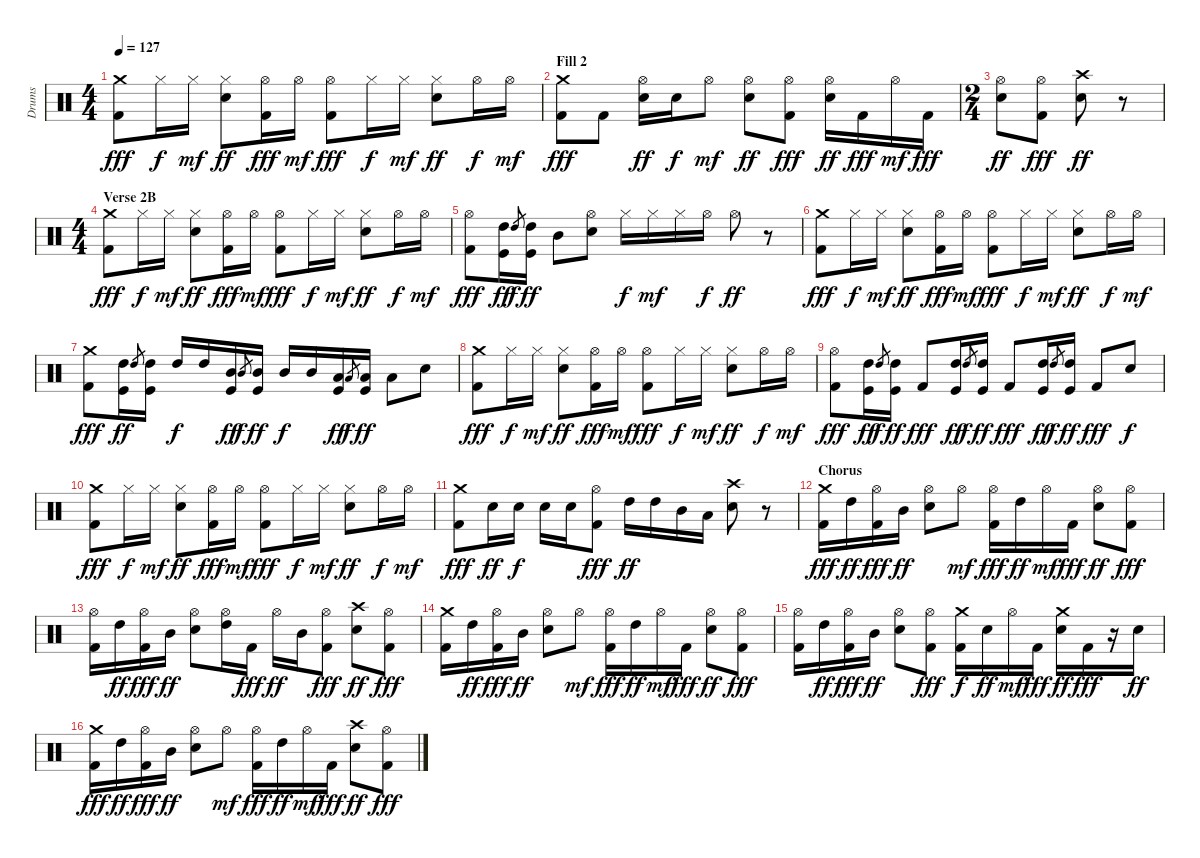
\track ("Drums" "Drums") {instrument percussion}
\staff {score}
\articulation defaults
\ts (4 4)
\tempo 127
\clef neutral
\ks c
("Crash medium (hit)" "Kick (hit) 2").8{dy fff} "Hi-Hat (closed)".16{dy f} "Hi-Hat (closed)".16{dy mf} ("Hi-Hat (closed)" "Snare (hit) 2").8{dy ff} ("Hi-Hat (open)" "Kick (hit) 2").16{dy fff} "Hi-Hat (open)".16{dy mf} ("Hi-Hat (open)" "Kick (hit) 2").8{dy fff} "Hi-Hat (closed)".16{dy f} "Hi-Hat (closed)".16{dy mf} ("Hi-Hat (closed)" "Snare (hit) 2").8{dy ff} "Hi-Hat (open)".16{dy f} "Hi-Hat (open)".16{dy mf} |
\section ("" "Fill 2")
("Crash medium (hit)" "Kick (hit) 2").8{dy fff} "Kick (hit) 2".8 ("Hi-Hat (open)" "Snare (hit) 2").16{dy ff} "Snare (hit) 2".16{dy f} "Hi-Hat (open)".8{dy mf} ("Hi-Hat (open)" "Snare (hit) 2").8{dy ff} ("Hi-Hat (open)" "Kick (hit) 2").8{dy fff} ("Hi-Hat (open)" "Snare (hit) 2").16{dy ff} "Kick (hit) 2".16{dy fff} "Hi-Hat (open)".16{dy mf} "Kick (hit) 2".16{dy fff} |
\ts (2 4)
("Hi-Hat (open)" "Snare (hit) 2").8{dy ff} ("Hi-Hat (open)" "Kick (hit) 2").8{dy fff} ("Crash high (hit)" "Snare (hit) 2").8{dy ff} r.8 |
\ts (4 4)
\section ("" "Verse 2B")
("Crash medium (hit)" "Kick (hit) 2").8{dy fff} "Hi-Hat (closed)".16{dy f} "Hi-Hat (closed)".16{dy mf} ("Hi-Hat (closed)" "Snare (hit) 2").8{dy ff} ("Hi-Hat (open)" "Kick (hit) 2").16{dy fff} "Hi-Hat (open)".16{dy mf} ("Hi-Hat (open)" "Kick (hit) 2").8{dy fff} "Hi-Hat (closed)".16{dy f} "Hi-Hat (closed)".16{dy mf} ("Hi-Hat (closed)" "Snare (hit) 2").8{dy ff} "Hi-Hat (open)".16{dy f} "Hi-Hat (open)".16{dy mf} |
("Hi-Hat (open)" "Kick (hit) 2").8{dy fff} ("High Tom (hit)" "Kick (hit)").16{dy ff} "High Tom (hit)".8{gr dy f} ("High Tom (hit)" "Kick (hit)").16{dy ff} "Mid Tom (hit)".8 ("Hi-Hat (open)" "Snare (hit) 2").8 "Hi-Hat (closed)".16{dy f} "Hi-Hat (closed)".16{dy mf} "Hi-Hat (closed)".16 "Hi-Hat (open)".16{dy f} "Hi-Hat (open)".8{dy ff} r.8 |
("Crash medium (hit)" "Kick (hit) 2").8{dy fff} "Hi-Hat (closed)".16{dy f} "Hi-Hat (closed)".16{dy mf} ("Hi-Hat (closed)" "Snare (hit) 2").8{dy ff} ("Hi-Hat (open)" "Kick (hit) 2").16{dy fff} "Hi-Hat (open)".16{dy mf} ("Hi-Hat (open)" "Kick (hit) 2").8{dy fff} "Hi-Hat (closed)".16{dy f} "Hi-Hat (closed)".16{dy mf} ("Hi-Hat (closed)" "Snare (hit) 2").8{dy ff} "Hi-Hat (open)".16{dy f} "Hi-Hat (open)".16{dy mf} |
("Crash medium (hit)" "Kick (hit) 2").8{dy fff} ("High Tom (hit)" "Kick (hit)").16{dy ff} "High Tom (hit)".8{gr} ("High Tom (hit)" "Kick (hit)").16 "High Tom (hit)".16{dy f} "High Tom (hit)".16 ("Mid Tom (hit)" "Kick (hit)").16{dy ff} "Mid Tom (hit)".8{gr dy f} ("Mid Tom (hit)" "Kick (hit)").16{dy ff} "Mid Tom (hit)".16{dy f} "Mid Tom (hit)".16 ("Low Tom (hit)" "Kick (hit)").16{dy ff} "Low Tom (hit)".8{gr dy f} ("Low Tom (hit)" "Kick (hit)").16{dy ff} "Low Tom (hit)".8 "Snare (hit) 2".8 |
("Crash medium (hit)" "Kick (hit) 2").8{dy fff} "Hi-Hat (closed)".16{dy f} "Hi-Hat (closed)".16{dy mf} ("Hi-Hat (closed)" "Snare (hit) 2").8{dy ff} ("Hi-Hat (open)" "Kick (hit) 2").16{dy fff} "Hi-Hat (open)".16{dy mf} ("Hi-Hat (open)" "Kick (hit) 2").8{dy fff} "Hi-Hat (closed)".16{dy f} "Hi-Hat (closed)".16{dy mf} ("Hi-Hat (closed)" "Snare (hit) 2").8{dy ff} "Hi-Hat (open)".16{dy f} "Hi-Hat (open)".16{dy mf} |
("Hi-Hat (open)" "Kick (hit) 2").8{dy fff} ("High Tom (hit)" "Kick (hit)").16{dy ff} "High Tom (hit)".8{gr dy f} ("High Tom (hit)" "Kick (hit)").16{dy ff} "Kick (hit) 2".8{dy fff} ("High Tom (hit)" "Kick (hit)").16{dy ff} "High Tom (hit)".8{gr dy f} ("High Tom (hit)" "Kick (hit)").16{dy ff} "Kick (hit) 2".8{dy fff} ("High Tom (hit)" "Kick (hit)").16{dy ff} "High Tom (hit)".8{gr dy f} ("High Tom (hit)" "Kick (hit)").16{dy ff} "Kick (hit) 2".8{dy fff} "Snare (hit) 2".8{dy f} |
("Crash medium (hit)" "Kick (hit) 2").8{dy fff} "Hi-Hat (closed)".16{dy f} "Hi-Hat (closed)".16{dy mf} ("Hi-Hat (closed)" "Snare (hit) 2").8{dy ff} ("Hi-Hat (open)" "Kick (hit) 2").16{dy fff} "Hi-Hat (open)".16{dy mf} ("Hi-Hat (open)" "Kick (hit) 2").8{dy fff} "Hi-Hat (closed)".16{dy f} "Hi-Hat (closed)".16{dy mf} ("Hi-Hat (closed)" "Snare (hit) 2").8{dy ff} "Hi-Hat (open)".16{dy f} "Hi-Hat (open)".16{dy mf} |
("Crash medium (hit)" "Kick (hit) 2").8{dy fff} "Snare (hit) 2".16{dy ff} "Snare (hit) 2".16{dy f} "Snare (hit) 2".16 "Snare (hit) 2".16 ("Hi-Hat (open)" "Kick (hit) 2").8{dy fff} "High Tom (hit)".16{dy ff} "High Tom (hit)".16 "Mid Tom (hit)".16 "Low Tom (hit)".16 ("Crash high (hit)" "Snare (hit) 2").8 r.8 |
\section ("" "Chorus")
("Crash medium (hit)" "Kick (hit) 2").16{dy fff} "High Tom (hit)".16{dy ff} ("Hi-Hat (open)" "Kick (hit) 2").16{dy fff} "Mid Tom (hit)".16{dy ff} ("Hi-Hat (open)" "Snare (hit) 2").8 "Hi-Hat (open)".8{dy mf} ("Hi-Hat (open)" "Kick (hit) 2").16{dy fff} "High Tom (hit)".16{dy ff} "Hi-Hat (open)".16{dy mf} "Kick (hit) 2".16{dy fff} ("Hi-Hat (open)" "Snare (hit) 2").8{dy ff} ("Hi-Hat (open)" "Kick (hit) 2").8{dy fff} |
("Hi-Hat (open)" "Kick (hit) 2").16 "High Tom (hit)".16{dy ff} ("Hi-Hat (open)" "Kick (hit) 2").16{dy fff} "Mid Tom (hit)".16{dy ff} ("Hi-Hat (open)" "Snare (hit) 2").8 ("Hi-Hat (open)" "High Tom (hit)").16 "Kick (hit) 2".16{dy fff} "Hi-Hat (open)".16{dy ff} "Mid Tom (hit)".16 ("Hi-Hat (open)" "Kick (hit) 2").8{dy fff} ("Crash high (hit)" "Snare (hit) 2").8{dy ff} ("Hi-Hat (open)" "Kick (hit) 2").8{dy fff} |
("Crash medium (hit)" "Kick (hit) 2").16 "High Tom (hit)".16{dy ff} ("Hi-Hat (open)" "Kick (hit) 2").16{dy fff} "Mid Tom (hit)".16{dy ff} ("Hi-Hat (open)" "Snare (hit) 2").8 "Hi-Hat (open)".8{dy mf} ("Hi-Hat (open)" "Kick (hit) 2").16{dy fff} "High Tom (hit)".16{dy ff} "Hi-Hat (open)".16{dy mf} "Kick (hit) 2".16{dy fff} ("Hi-Hat (open)" "Snare (hit) 2").8{dy ff} ("Hi-Hat (open)" "Kick (hit) 2").8{dy fff} |
("Hi-Hat (open)" "Kick (hit) 2").16 "High Tom (hit)".16{dy ff} ("Hi-Hat (open)" "Kick (hit) 2").16{dy fff} "Mid Tom (hit)".16{dy ff} ("Hi-Hat (open)" "Snare (hit) 2").8 ("Hi-Hat (open)" "Kick (hit) 2").8{dy fff} ("Crash medium (hit)" "Kick (hit) 2").16{dy f} "Snare (hit) 2".16{dy ff} "Hi-Hat (open)".16{dy mf} "Kick (hit) 2".16{dy fff} ("Crash medium (hit)" "Snare (hit) 2").16{dy ff} "Kick (hit) 2".16{dy fff} r.16 "Snare (hit) 2".16{dy ff} |
("Crash medium (hit)" "Kick (hit) 2").16{dy fff} "High Tom (hit)".16{dy ff} ("Hi-Hat (open)" "Kick (hit) 2").16{dy fff} "Mid Tom (hit)".16{dy ff} ("Hi-Hat (open)" "Snare (hit) 2").8 "Hi-Hat (open)".8{dy mf} ("Hi-Hat (open)" "Kick (hit) 2").16{dy fff} "High Tom (hit)".16{dy ff} "Hi-Hat (open)".16{dy mf} "Kick (hit) 2".16{dy fff} ("Crash high (hit)" "Snare (hit) 2").8{dy ff} ("Hi-Hat (open)" "Kick (hit) 2").8{dy fff}
